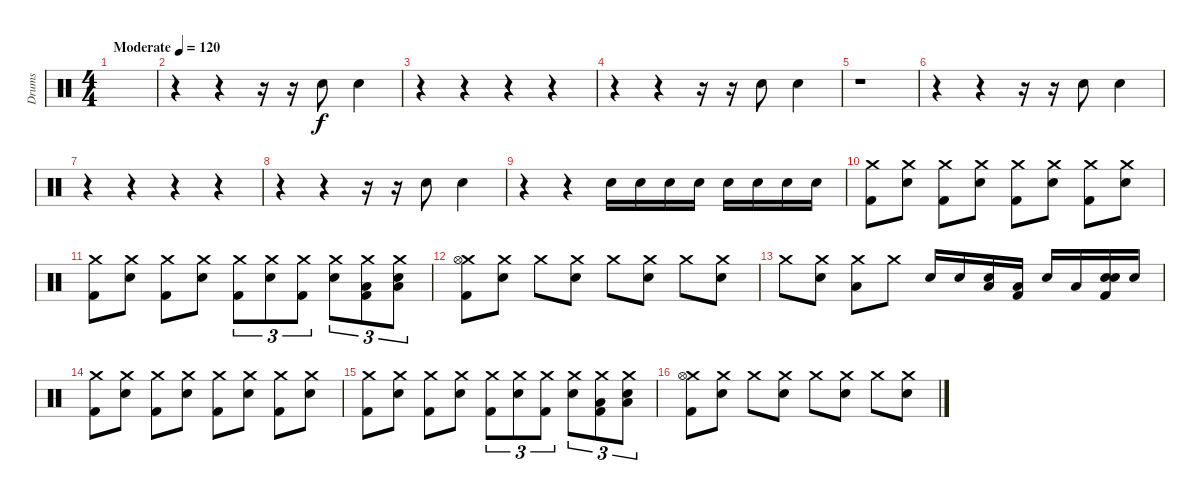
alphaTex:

\track ("Drums" "Drums") {instrument percussion}
\staff {score}
\articulation defaults
\ts (4 4)
\tempo (120 "Moderate")
\clef neutral
\ks c
|
r.4 r.4 r.16 r.16 "Hand Clap (hit)".8 "Hand Clap (hit)".4 |
r.4 r.4 r.4 r.4 |
r.4 r.4 r.16 r.16 "Hand Clap (hit)".8 "Hand Clap (hit)".4 |
r.1 |
r.4 r.4 r.16 r.16 "Hand Clap (hit)".8 "Hand Clap (hit)".4 |
r.4 r.4 r.4 r.4 |
r.4 r.4 r.16 r.16 "Hand Clap (hit)".8 "Hand Clap (hit)".4 |
r.4 r.4 "Snare (hit) 2".16 "Snare (hit) 2".16 "Snare (hit) 2".16 "Snare (hit) 2".16 "Snare (hit) 2".16 "Snare (hit) 2".16 "Snare (hit) 2".16 "Snare (hit) 2".16 |
("Crash medium (hit)" "Kick (hit) 2").8 ("Crash medium (hit)" "Snare (hit) 2").8 ("Crash medium (hit)" "Kick (hit) 2").8 ("Crash medium (hit)" "Snare (hit) 2").8 ("Crash medium (hit)" "Kick (hit) 2").8 ("Crash medium (hit)" "Snare (hit) 2").8 ("Crash medium (hit)" "Kick (hit) 2").8 ("Crash medium (hit)" "Snare (hit) 2").8 |
("Crash medium (hit)" "Kick (hit) 2").8 ("Crash medium (hit)" "Snare (hit) 2").8 ("Crash medium (hit)" "Kick (hit) 2").8 ("Crash medium (hit)" "Snare (hit) 2").8 ("Crash medium (hit)" "Kick (hit) 2").8{tu (3 2)} ("Crash medium (hit)" "Snare (hit) 2").8{tu (3 2)} ("Crash medium (hit)" "Kick (hit) 2").8{tu (3 2)} ("Crash medium (hit)" "Snare (hit) 2").8{tu (3 2)} ("Crash medium (hit)" "Low Tom (hit)" "Kick (hit) 2").8{tu (3 2)} ("Crash medium (hit)" "Low Floor Tom (hit)" "Snare (hit) 2").8{tu (3 2)} |
("Crash medium (hit)" "Hi-Hat (open)" "Kick (hit) 2").8 ("Crash medium (hit)" "Snare (hit) 2").8 "Crash medium (hit)".8 ("Crash medium (hit)" "Snare (hit) 2").8 "Crash medium (hit)".8 ("Crash medium (hit)" "Snare (hit) 2").8 "Crash medium (hit)".8 ("Crash medium (hit)" "Snare (hit) 2").8 |
"Crash medium (hit)".8 ("Crash medium (hit)" "Snare (hit) 2").8 ("Crash medium (hit)" "Low Tom (hit)").8 "Crash medium (hit)".8 "Snare (hit) 2".16 "Snare (hit) 2".16 ("Low Tom (hit)" "Snare (hit) 2").16 ("Low Tom (hit)" "Kick (hit) 2").16 "Snare (hit) 2".16 "Low Floor Tom (hit)".16 ("Snare (hit)" "Snare (hit) 2" "Kick (hit) 2").16 "Snare (hit) 2".16 |
("Crash medium (hit)" "Kick (hit) 2").8 ("Crash medium (hit)" "Snare (hit) 2").8 ("Crash medium (hit)" "Kick (hit) 2").8 ("Crash medium (hit)" "Snare (hit) 2").8 ("Crash medium (hit)" "Kick (hit) 2").8 ("Crash medium (hit)" "Snare (hit) 2").8 ("Crash medium (hit)" "Kick (hit) 2").8 ("Crash medium (hit)" "Snare (hit) 2").8 |
("Crash medium (hit)" "Kick (hit) 2").8 ("Crash medium (hit)" "Snare (hit) 2").8 ("Crash medium (hit)" "Kick (hit) 2").8 ("Crash medium (hit)" "Snare (hit) 2").8 ("Crash medium (hit)" "Kick (hit) 2").8{tu (3 2)} ("Crash medium (hit)" "Snare (hit) 2").8{tu (3 2)} ("Crash medium (hit)" "Kick (hit) 2").8{tu (3 2)} ("Crash medium (hit)" "Snare (hit) 2").8{tu (3 2)} ("Crash medium (hit)" "Low Tom (hit)" "Kick (hit) 2").8{tu (3 2)} ("Crash medium (hit)" "Low Floor Tom (hit)" "Snare (hit) 2").8{tu (3 2)} |
("Crash medium (hit)" "Hi-Hat (open)" "Kick (hit) 2").8 ("Crash medium (hit)" "Snare (hit) 2").8 "Crash medium (hit)".8 ("Crash medium (hit)" "Snare (hit) 2").8 "Crash medium (hit)".8 ("Crash medium (hit)" "Snare (hit) 2").8 "Crash medium (hit)".8 ("Crash medium (hit)" "Snare (hit) 2").8
